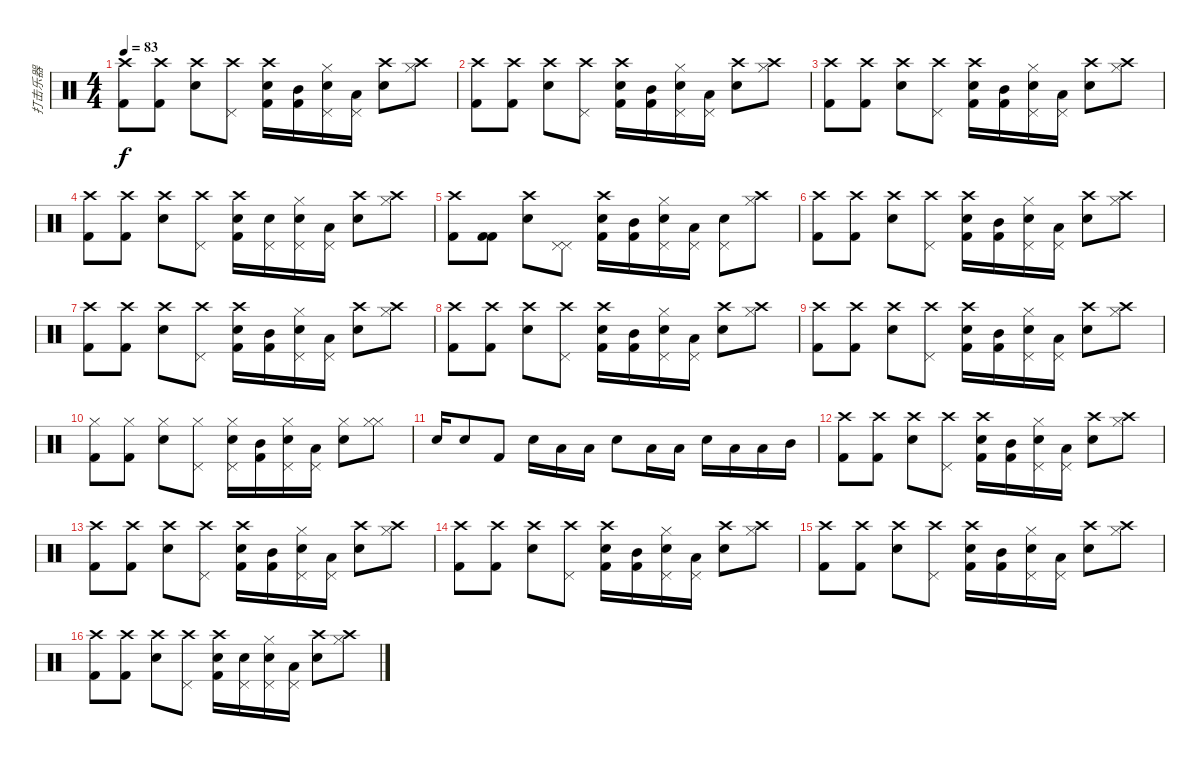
\track ("打击乐器" "打击乐器") {instrument percussion}
\staff {score}
\articulation defaults
\ts (4 4)
\tempo 83
\clef neutral
\ks c
("Crash high (hit)" "Kick (hit) 2").8{dy f} ("Crash high (hit)" "Kick (hit) 2").8 ("Crash high (hit)" "Snare (hit) 2").8 ("Crash high (hit)" "Pedal Hi-Hat (hit)").8 ("Electric Snare (hit)" "Kick (hit) 2" "Crash high (hit)").16 ("Kick (hit) 2" "Mid Tom (hit)").16 ("Electric Snare (hit)" "Hi-Hat (closed)" "Pedal Hi-Hat (hit)").16 ("Pedal Hi-Hat (hit)" "Low Floor Tom (hit)").16 ("Crash high (hit)" "Snare (hit) 2").8 ("Crash high (hit)" "Hi-Hat (closed)").8 |
("Crash high (hit)" "Kick (hit) 2").8 ("Crash high (hit)" "Kick (hit) 2").8 ("Crash high (hit)" "Snare (hit) 2").8 ("Crash high (hit)" "Pedal Hi-Hat (hit)").8 ("Electric Snare (hit)" "Kick (hit) 2" "Crash high (hit)").16 ("Kick (hit) 2" "Mid Tom (hit)").16 ("Electric Snare (hit)" "Hi-Hat (closed)" "Pedal Hi-Hat (hit)").16 ("Pedal Hi-Hat (hit)" "Low Floor Tom (hit)").16 ("Crash high (hit)" "Snare (hit) 2").8 ("Crash high (hit)" "Hi-Hat (closed)").8 |
("Crash high (hit)" "Kick (hit) 2").8 ("Crash high (hit)" "Kick (hit) 2").8 ("Crash high (hit)" "Snare (hit) 2").8 ("Crash high (hit)" "Pedal Hi-Hat (hit)").8 ("Electric Snare (hit)" "Kick (hit) 2" "Crash high (hit)").16 ("Kick (hit) 2" "Mid Tom (hit)").16 ("Electric Snare (hit)" "Hi-Hat (closed)" "Pedal Hi-Hat (hit)").16 ("Pedal Hi-Hat (hit)" "Low Floor Tom (hit)").16 ("Crash high (hit)" "Snare (hit) 2").8 ("Crash high (hit)" "Hi-Hat (closed)").8 |
("Crash high (hit)" "Kick (hit) 2").8 ("Crash high (hit)" "Kick (hit) 2").8 ("Crash high (hit)" "Snare (hit) 2").8 ("Crash high (hit)" "Pedal Hi-Hat (hit)").8 ("Electric Snare (hit)" "Kick (hit) 2" "Crash high (hit)").16 ("Electric Snare (hit)" "Pedal Hi-Hat (hit)").16 ("Electric Snare (hit)" "Hi-Hat (closed)" "Pedal Hi-Hat (hit)").16 ("Pedal Hi-Hat (hit)" "Low Floor Tom (hit)").16 ("Crash high (hit)" "Snare (hit) 2").8 ("Crash high (hit)" "Hi-Hat (closed)").8 |
("Crash high (hit)" "Kick (hit) 2").8 ("Kick (hit) 2" "Kick (hit) 2").8 ("Crash high (hit)" "Snare (hit) 2").8 ("Pedal Hi-Hat (hit)" "Pedal Hi-Hat (hit)").8 ("Electric Snare (hit)" "Kick (hit) 2" "Crash high (hit)").16 ("Kick (hit) 2" "Mid Tom (hit)").16 ("Electric Snare (hit)" "Hi-Hat (closed)" "Pedal Hi-Hat (hit)").16 ("Pedal Hi-Hat (hit)" "Low Floor Tom (hit)").16 ("Pedal Hi-Hat (hit)" "Snare (hit) 2").8 ("Crash high (hit)" "Hi-Hat (closed)").8 |
("Crash high (hit)" "Kick (hit) 2").8 ("Crash high (hit)" "Kick (hit) 2").8 ("Crash high (hit)" "Snare (hit) 2").8 ("Crash high (hit)" "Pedal Hi-Hat (hit)").8 ("Electric Snare (hit)" "Kick (hit) 2" "Crash high (hit)").16 ("Kick (hit) 2" "Mid Tom (hit)").16 ("Electric Snare (hit)" "Hi-Hat (closed)" "Pedal Hi-Hat (hit)").16 ("Pedal Hi-Hat (hit)" "Low Floor Tom (hit)").16 ("Crash high (hit)" "Snare (hit) 2").8 ("Crash high (hit)" "Hi-Hat (closed)").8 |
("Crash high (hit)" "Kick (hit) 2").8 ("Crash high (hit)" "Kick (hit) 2").8 ("Crash high (hit)" "Snare (hit) 2").8 ("Crash high (hit)" "Pedal Hi-Hat (hit)").8 ("Electric Snare (hit)" "Kick (hit) 2" "Crash high (hit)").16 ("Kick (hit) 2" "Mid Tom (hit)").16 ("Electric Snare (hit)" "Hi-Hat (closed)" "Pedal Hi-Hat (hit)").16 ("Pedal Hi-Hat (hit)" "Low Floor Tom (hit)").16 ("Crash high (hit)" "Snare (hit) 2").8 ("Crash high (hit)" "Hi-Hat (closed)").8 |
("Crash high (hit)" "Kick (hit) 2").8 ("Crash high (hit)" "Kick (hit) 2").8 ("Crash high (hit)" "Snare (hit) 2").8 ("Crash high (hit)" "Pedal Hi-Hat (hit)").8 ("Electric Snare (hit)" "Kick (hit) 2" "Crash high (hit)").16 ("Kick (hit) 2" "Mid Tom (hit)").16 ("Electric Snare (hit)" "Hi-Hat (closed)" "Pedal Hi-Hat (hit)").16 ("Pedal Hi-Hat (hit)" "Low Floor Tom (hit)").16 ("Crash high (hit)" "Snare (hit) 2").8 ("Crash high (hit)" "Hi-Hat (closed)").8 |
("Crash high (hit)" "Kick (hit) 2").8 ("Crash high (hit)" "Kick (hit) 2").8 ("Crash high (hit)" "Snare (hit) 2").8 ("Crash high (hit)" "Pedal Hi-Hat (hit)").8 ("Electric Snare (hit)" "Kick (hit) 2" "Crash high (hit)").16 ("Kick (hit) 2" "Mid Tom (hit)").16 ("Electric Snare (hit)" "Hi-Hat (closed)" "Pedal Hi-Hat (hit)").16 ("Pedal Hi-Hat (hit)" "Low Floor Tom (hit)").16 ("Crash high (hit)" "Snare (hit) 2").8 ("Crash high (hit)" "Hi-Hat (closed)").8 |
("Hi-Hat (closed)" "Kick (hit) 2").8 ("Hi-Hat (closed)" "Kick (hit) 2").8 ("Hi-Hat (closed)" "Snare (hit) 2").8 ("Hi-Hat (closed)" "Pedal Hi-Hat (hit)").8 ("Hi-Hat (closed)" "Metronome (bell)" "Pedal Hi-Hat (hit)").16 ("Kick (hit) 2" "Mid Tom (hit)").16 ("Electric Snare (hit)" "Hi-Hat (closed)" "Pedal Hi-Hat (hit)").16 ("Pedal Hi-Hat (hit)" "Low Floor Tom (hit)").16 ("Hi-Hat (closed)" "Snare (hit) 2").8 ("Hi-Hat (closed)" "Hi-Hat (closed)").8 |
"Snare (hit) 2".16 "Electric Snare (hit)".8 "Kick (hit) 2".8 "Electric Snare (hit)".16 "Low Floor Tom (hit)".16 "Low Floor Tom (hit)".16 "Electric Snare (hit)".8 "Low Tom (hit)".16 "Low Floor Tom (hit)".16 "Electric Snare (hit)".16 "Low Floor Tom (hit)".16 "Low Floor Tom (hit)".16 "Mid Tom (hit)".16 |
("Crash high (hit)" "Kick (hit) 2").8 ("Crash high (hit)" "Kick (hit) 2").8 ("Crash high (hit)" "Snare (hit) 2").8 ("Crash high (hit)" "Pedal Hi-Hat (hit)").8 ("Electric Snare (hit)" "Kick (hit) 2" "Crash high (hit)").16 ("Kick (hit) 2" "Mid Tom (hit)").16 ("Electric Snare (hit)" "Hi-Hat (closed)" "Pedal Hi-Hat (hit)").16 ("Pedal Hi-Hat (hit)" "Low Floor Tom (hit)").16 ("Crash high (hit)" "Snare (hit) 2").8 ("Crash high (hit)" "Hi-Hat (closed)").8 |
("Crash high (hit)" "Kick (hit) 2").8 ("Crash high (hit)" "Kick (hit) 2").8 ("Crash high (hit)" "Snare (hit) 2").8 ("Crash high (hit)" "Pedal Hi-Hat (hit)").8 ("Electric Snare (hit)" "Kick (hit) 2" "Crash high (hit)").16 ("Kick (hit) 2" "Mid Tom (hit)").16 ("Electric Snare (hit)" "Hi-Hat (closed)" "Pedal Hi-Hat (hit)").16 ("Pedal Hi-Hat (hit)" "Low Floor Tom (hit)").16 ("Crash high (hit)" "Snare (hit) 2").8 ("Crash high (hit)" "Hi-Hat (closed)").8 |
("Crash high (hit)" "Kick (hit) 2").8 ("Crash high (hit)" "Kick (hit) 2").8 ("Crash high (hit)" "Snare (hit) 2").8 ("Crash high (hit)" "Pedal Hi-Hat (hit)").8 ("Electric Snare (hit)" "Kick (hit) 2" "Crash high (hit)").16 ("Kick (hit) 2" "Mid Tom (hit)").16 ("Electric Snare (hit)" "Hi-Hat (closed)" "Pedal Hi-Hat (hit)").16 ("Pedal Hi-Hat (hit)" "Low Floor Tom (hit)").16 ("Crash high (hit)" "Snare (hit) 2").8 ("Crash high (hit)" "Hi-Hat (closed)").8 |
("Crash high (hit)" "Kick (hit) 2").8 ("Crash high (hit)" "Kick (hit) 2").8 ("Crash high (hit)" "Snare (hit) 2").8 ("Crash high (hit)" "Pedal Hi-Hat (hit)").8 ("Electric Snare (hit)" "Kick (hit) 2" "Crash high (hit)").16 ("Kick (hit) 2" "Mid Tom (hit)").16 ("Electric Snare (hit)" "Hi-Hat (closed)" "Pedal Hi-Hat (hit)").16 ("Pedal Hi-Hat (hit)" "Low Floor Tom (hit)").16 ("Crash high (hit)" "Snare (hit) 2").8 ("Crash high (hit)" "Hi-Hat (closed)").8 |
("Crash high (hit)" "Kick (hit) 2").8 ("Crash high (hit)" "Kick (hit) 2").8 ("Crash high (hit)" "Snare (hit) 2").8 ("Crash high (hit)" "Pedal Hi-Hat (hit)").8 ("Electric Snare (hit)" "Kick (hit) 2" "Crash high (hit)").16 ("Electric Snare (hit)" "Pedal Hi-Hat (hit)").16 ("Electric Snare (hit)" "Hi-Hat (closed)" "Pedal Hi-Hat (hit)").16 ("Pedal Hi-Hat (hit)" "Low Floor Tom (hit)").16 ("Crash high (hit)" "Snare (hit) 2").8 ("Crash high (hit)" "Hi-Hat (closed)").8
